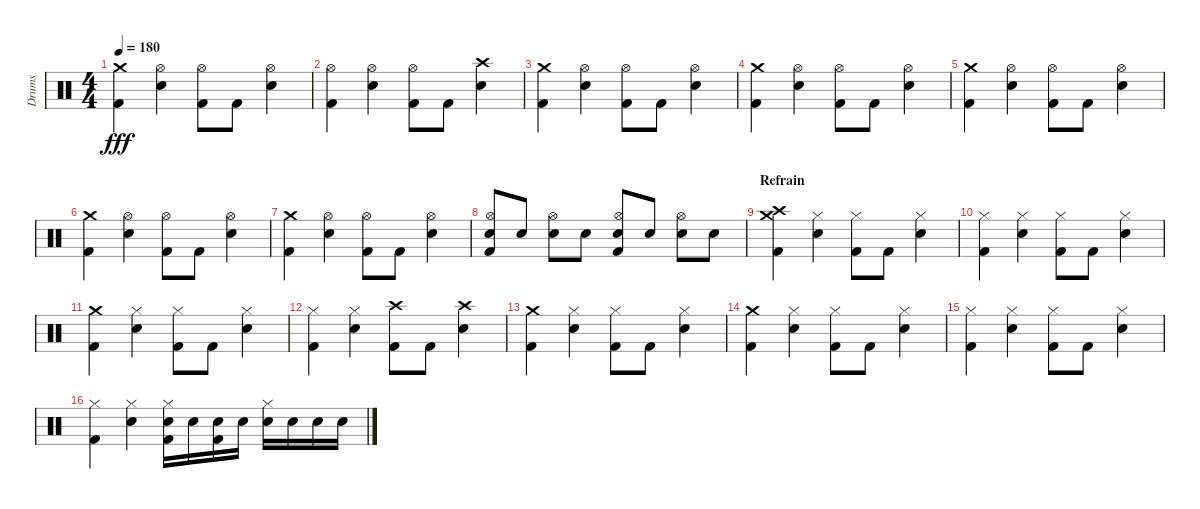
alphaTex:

\track ("Drums" "Drums") {instrument percussion}
\staff {score}
\articulation defaults
\ts (4 4)
\tempo 180
\clef neutral
\ks c
("Crash medium (hit)" "Kick (hit) 2").4{dy fff} ("Hi-Hat (open)" "Electric Snare (hit)").4 ("Hi-Hat (open)" "Kick (hit) 2").8 "Kick (hit) 2".8 ("Hi-Hat (open)" "Electric Snare (hit)").4 |
("Hi-Hat (open)" "Kick (hit) 2").4 ("Hi-Hat (open)" "Electric Snare (hit)").4 ("Hi-Hat (open)" "Kick (hit) 2").8 "Kick (hit) 2".8 ("Crash high (hit)" "Electric Snare (hit)").4 |
("Crash medium (hit)" "Kick (hit) 2").4 ("Hi-Hat (open)" "Electric Snare (hit)").4 ("Hi-Hat (open)" "Kick (hit) 2").8 "Kick (hit) 2".8 ("Hi-Hat (open)" "Electric Snare (hit)").4 |
("Crash medium (hit)" "Kick (hit) 2").4 ("Hi-Hat (open)" "Electric Snare (hit)").4 ("Hi-Hat (open)" "Kick (hit) 2").8 "Kick (hit) 2".8 ("Hi-Hat (open)" "Electric Snare (hit)").4 |
("Crash medium (hit)" "Kick (hit) 2").4 ("Hi-Hat (open)" "Electric Snare (hit)").4 ("Hi-Hat (open)" "Kick (hit) 2").8 "Kick (hit) 2".8 ("Hi-Hat (open)" "Electric Snare (hit)").4 |
("Crash medium (hit)" "Kick (hit) 2").4 ("Hi-Hat (open)" "Electric Snare (hit)").4 ("Hi-Hat (open)" "Kick (hit) 2").8 "Kick (hit) 2".8 ("Hi-Hat (open)" "Electric Snare (hit)").4 |
("Crash medium (hit)" "Kick (hit) 2").4 ("Hi-Hat (open)" "Electric Snare (hit)").4 ("Hi-Hat (open)" "Kick (hit) 2").8 "Kick (hit) 2".8 ("Hi-Hat (open)" "Electric Snare (hit)").4 |
("Hi-Hat (open)" "Kick (hit) 2" "Electric Snare (hit)").8 "Electric Snare (hit)".8 ("Hi-Hat (open)" "Electric Snare (hit)").8 "Electric Snare (hit)".8 ("Hi-Hat (open)" "Kick (hit) 2" "Electric Snare (hit)").8 "Electric Snare (hit)".8 ("Hi-Hat (open)" "Electric Snare (hit)").8 "Electric Snare (hit)".8 |
\section ("" "Refrain")
("Crash medium (hit)" "Crash high (hit)" "Kick (hit) 2").4 ("Hi-Hat (closed)" "Electric Snare (hit)").4 ("Hi-Hat (closed)" "Kick (hit) 2").8 "Kick (hit) 2".8 ("Hi-Hat (closed)" "Electric Snare (hit)").4 |
("Hi-Hat (closed)" "Kick (hit) 2").4 ("Hi-Hat (closed)" "Electric Snare (hit)").4 ("Hi-Hat (closed)" "Kick (hit) 2").8 "Kick (hit) 2".8 ("Hi-Hat (closed)" "Electric Snare (hit)").4 |
("Crash medium (hit)" "Kick (hit) 2").4 ("Hi-Hat (closed)" "Electric Snare (hit)").4 ("Hi-Hat (closed)" "Kick (hit) 2").8 "Kick (hit) 2".8 ("Hi-Hat (closed)" "Electric Snare (hit)").4 |
("Hi-Hat (closed)" "Kick (hit) 2").4 ("Hi-Hat (closed)" "Electric Snare (hit)").4 ("Crash high (hit)" "Kick (hit) 2").8 "Kick (hit) 2".8 ("Crash high (hit)" "Electric Snare (hit)").4 |
("Crash medium (hit)" "Kick (hit) 2").4 ("Hi-Hat (closed)" "Electric Snare (hit)").4 ("Hi-Hat (closed)" "Kick (hit) 2").8 "Kick (hit) 2".8 ("Hi-Hat (closed)" "Electric Snare (hit)").4 |
("Crash medium (hit)" "Kick (hit) 2").4 ("Hi-Hat (closed)" "Electric Snare (hit)").4 ("Hi-Hat (closed)" "Kick (hit) 2").8 "Kick (hit) 2".8 ("Hi-Hat (closed)" "Electric Snare (hit)").4 |
("Hi-Hat (closed)" "Kick (hit) 2").4 ("Hi-Hat (closed)" "Electric Snare (hit)").4 ("Hi-Hat (closed)" "Kick (hit) 2").8 "Kick (hit) 2".8 ("Hi-Hat (closed)" "Electric Snare (hit)").4 |
("Hi-Hat (closed)" "Kick (hit) 2").4 ("Hi-Hat (closed)" "Electric Snare (hit)").4 ("Hi-Hat (closed)" "Kick (hit) 2" "Electric Snare (hit)").16 "Electric Snare (hit)".16 ("Kick (hit) 2" "Electric Snare (hit)").16 "Electric Snare (hit)".16 ("Hi-Hat (closed)" "Electric Snare (hit)").16 "Electric Snare (hit)".16 "Electric Snare (hit)".16 "Electric Snare (hit)".16
